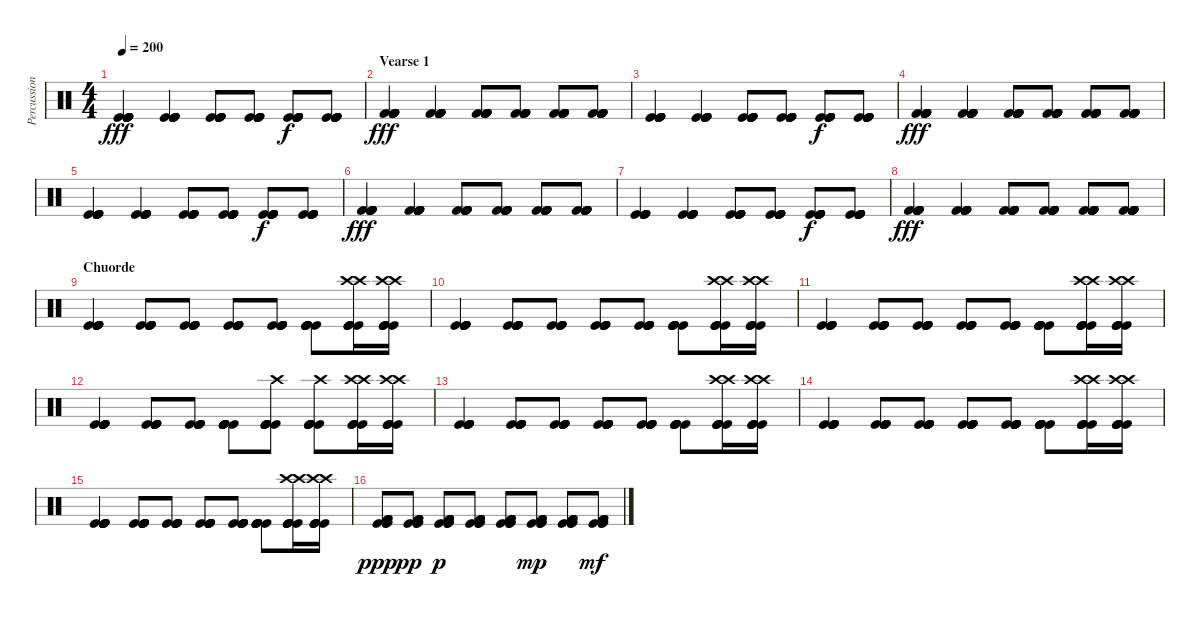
\track ("Percussion" "Percussion") {instrument percussion}
\staff {score}
\articulation defaults
\ts (4 4)
\tempo 200
\clef neutral
\ks c
("Kick (hit)" "Kick (hit)" "Kick (hit)" "Kick (hit)" "Kick (hit)" "Kick (hit)").4{dy fff} ("Kick (hit)" "Kick (hit)" "Kick (hit)" "Kick (hit)" "Kick (hit)" "Kick (hit)").4 ("Kick (hit)" "Kick (hit)" "Kick (hit)" "Kick (hit)" "Kick (hit)" "Kick (hit)").8 ("Kick (hit)" "Kick (hit)" "Kick (hit)" "Kick (hit)" "Kick (hit)" "Kick (hit)").8 ("Kick (hit)" "Kick (hit)" "Kick (hit)" "Kick (hit)" "Kick (hit)" "Kick (hit)").8{dy f} ("Kick (hit)" "Kick (hit)" "Kick (hit)" "Kick (hit)" "Kick (hit)" "Kick (hit)").8 |
\section ("" "Vearse 1")
("Kick (hit) 2" "Kick (hit) 2" "Kick (hit) 2" "Kick (hit) 2" "Kick (hit) 2" "Kick (hit) 2").4{dy fff} ("Kick (hit) 2" "Kick (hit) 2" "Kick (hit) 2" "Kick (hit) 2" "Kick (hit) 2" "Kick (hit) 2").4 ("Kick (hit) 2" "Kick (hit) 2" "Kick (hit) 2" "Kick (hit) 2" "Kick (hit) 2" "Kick (hit) 2").8 ("Kick (hit) 2" "Kick (hit) 2" "Kick (hit) 2" "Kick (hit) 2" "Kick (hit) 2" "Kick (hit) 2").8 ("Kick (hit) 2" "Kick (hit) 2" "Kick (hit) 2" "Kick (hit) 2" "Kick (hit) 2" "Kick (hit) 2").8 ("Kick (hit) 2" "Kick (hit) 2" "Kick (hit) 2" "Kick (hit) 2" "Kick (hit) 2" "Kick (hit) 2").8 |
("Kick (hit)" "Kick (hit)" "Kick (hit)" "Kick (hit)" "Kick (hit)" "Kick (hit)").4 ("Kick (hit)" "Kick (hit)" "Kick (hit)" "Kick (hit)" "Kick (hit)" "Kick (hit)").4 ("Kick (hit)" "Kick (hit)" "Kick (hit)" "Kick (hit)" "Kick (hit)" "Kick (hit)").8 ("Kick (hit)" "Kick (hit)" "Kick (hit)" "Kick (hit)" "Kick (hit)" "Kick (hit)").8 ("Kick (hit)" "Kick (hit)" "Kick (hit)" "Kick (hit)" "Kick (hit)" "Kick (hit)").8{dy f} ("Kick (hit)" "Kick (hit)" "Kick (hit)" "Kick (hit)" "Kick (hit)" "Kick (hit)").8 |
("Kick (hit) 2" "Kick (hit) 2" "Kick (hit) 2" "Kick (hit) 2" "Kick (hit) 2" "Kick (hit) 2").4{dy fff} ("Kick (hit) 2" "Kick (hit) 2" "Kick (hit) 2" "Kick (hit) 2" "Kick (hit) 2" "Kick (hit) 2").4 ("Kick (hit) 2" "Kick (hit) 2" "Kick (hit) 2" "Kick (hit) 2" "Kick (hit) 2" "Kick (hit) 2").8 ("Kick (hit) 2" "Kick (hit) 2" "Kick (hit) 2" "Kick (hit) 2" "Kick (hit) 2" "Kick (hit) 2").8 ("Kick (hit) 2" "Kick (hit) 2" "Kick (hit) 2" "Kick (hit) 2" "Kick (hit) 2" "Kick (hit) 2").8 ("Kick (hit) 2" "Kick (hit) 2" "Kick (hit) 2" "Kick (hit) 2" "Kick (hit) 2" "Kick (hit) 2").8 |
("Kick (hit)" "Kick (hit)" "Kick (hit)" "Kick (hit)" "Kick (hit)" "Kick (hit)").4 ("Kick (hit)" "Kick (hit)" "Kick (hit)" "Kick (hit)" "Kick (hit)" "Kick (hit)").4 ("Kick (hit)" "Kick (hit)" "Kick (hit)" "Kick (hit)" "Kick (hit)" "Kick (hit)").8 ("Kick (hit)" "Kick (hit)" "Kick (hit)" "Kick (hit)" "Kick (hit)" "Kick (hit)").8 ("Kick (hit)" "Kick (hit)" "Kick (hit)" "Kick (hit)" "Kick (hit)" "Kick (hit)").8{dy f} ("Kick (hit)" "Kick (hit)" "Kick (hit)" "Kick (hit)" "Kick (hit)" "Kick (hit)").8 |
("Kick (hit) 2" "Kick (hit) 2" "Kick (hit) 2" "Kick (hit) 2" "Kick (hit) 2" "Kick (hit) 2").4{dy fff} ("Kick (hit) 2" "Kick (hit) 2" "Kick (hit) 2" "Kick (hit) 2" "Kick (hit) 2" "Kick (hit) 2").4 ("Kick (hit) 2" "Kick (hit) 2" "Kick (hit) 2" "Kick (hit) 2" "Kick (hit) 2" "Kick (hit) 2").8 ("Kick (hit) 2" "Kick (hit) 2" "Kick (hit) 2" "Kick (hit) 2" "Kick (hit) 2" "Kick (hit) 2").8 ("Kick (hit) 2" "Kick (hit) 2" "Kick (hit) 2" "Kick (hit) 2" "Kick (hit) 2" "Kick (hit) 2").8 ("Kick (hit) 2" "Kick (hit) 2" "Kick (hit) 2" "Kick (hit) 2" "Kick (hit) 2" "Kick (hit) 2").8 |
("Kick (hit)" "Kick (hit)" "Kick (hit)" "Kick (hit)" "Kick (hit)" "Kick (hit)").4 ("Kick (hit)" "Kick (hit)" "Kick (hit)" "Kick (hit)" "Kick (hit)" "Kick (hit)").4 ("Kick (hit)" "Kick (hit)" "Kick (hit)" "Kick (hit)" "Kick (hit)" "Kick (hit)").8 ("Kick (hit)" "Kick (hit)" "Kick (hit)" "Kick (hit)" "Kick (hit)" "Kick (hit)").8 ("Kick (hit)" "Kick (hit)" "Kick (hit)" "Kick (hit)" "Kick (hit)" "Kick (hit)").8{dy f} ("Kick (hit)" "Kick (hit)" "Kick (hit)" "Kick (hit)" "Kick (hit)" "Kick (hit)").8 |
("Kick (hit) 2" "Kick (hit) 2" "Kick (hit) 2" "Kick (hit) 2" "Kick (hit) 2" "Kick (hit) 2").4{dy fff} ("Kick (hit) 2" "Kick (hit) 2" "Kick (hit) 2" "Kick (hit) 2" "Kick (hit) 2" "Kick (hit) 2").4 ("Kick (hit) 2" "Kick (hit) 2" "Kick (hit) 2" "Kick (hit) 2" "Kick (hit) 2" "Kick (hit) 2").8 ("Kick (hit) 2" "Kick (hit) 2" "Kick (hit) 2" "Kick (hit) 2" "Kick (hit) 2" "Kick (hit) 2").8 ("Kick (hit) 2" "Kick (hit) 2" "Kick (hit) 2" "Kick (hit) 2" "Kick (hit) 2" "Kick (hit) 2").8 ("Kick (hit) 2" "Kick (hit) 2" "Kick (hit) 2" "Kick (hit) 2" "Kick (hit) 2" "Kick (hit) 2").8 |
\section ("" "Chuorde ")
("Kick (hit)" "Kick (hit)" "Kick (hit)" "Kick (hit)" "Kick (hit)" "Kick (hit)").4 ("Kick (hit)" "Kick (hit)" "Kick (hit)" "Kick (hit)" "Kick (hit)" "Kick (hit)").8 ("Kick (hit)" "Kick (hit)" "Kick (hit)" "Kick (hit)" "Kick (hit)" "Kick (hit)").8 ("Kick (hit)" "Kick (hit)" "Kick (hit)" "Kick (hit)" "Kick (hit)" "Kick (hit)").8 ("Kick (hit)" "Kick (hit)" "Kick (hit)" "Kick (hit)" "Kick (hit)" "Kick (hit)").8 ("Kick (hit)" "Kick (hit)" "Kick (hit)" "Kick (hit)" "Kick (hit)" "Kick (hit)").8 ("Crash high (hit)" "Kick (hit)" "Kick (hit)" "Kick (hit)" "Crash high (hit)" "Kick (hit)").16 ("Kick (hit)" "Kick (hit)" "Crash high (hit)" "Kick (hit)" "Kick (hit)" "Crash high (hit)").16 |
("Kick (hit)" "Kick (hit)" "Kick (hit)" "Kick (hit)" "Kick (hit)" "Kick (hit)").4 ("Kick (hit)" "Kick (hit)" "Kick (hit)" "Kick (hit)" "Kick (hit)" "Kick (hit)").8 ("Kick (hit)" "Kick (hit)" "Kick (hit)" "Kick (hit)" "Kick (hit)" "Kick (hit)").8 ("Kick (hit)" "Kick (hit)" "Kick (hit)" "Kick (hit)" "Kick (hit)" "Kick (hit)").8 ("Kick (hit)" "Kick (hit)" "Kick (hit)" "Kick (hit)" "Kick (hit)" "Kick (hit)").8 ("Kick (hit)" "Kick (hit)" "Kick (hit)" "Kick (hit)" "Kick (hit)" "Kick (hit)").8 ("Crash high (hit)" "Kick (hit)" "Kick (hit)" "Kick (hit)" "Crash high (hit)" "Kick (hit)").16 ("Kick (hit)" "Kick (hit)" "Crash high (hit)" "Kick (hit)" "Kick (hit)" "Crash high (hit)").16 |
("Kick (hit)" "Kick (hit)" "Kick (hit)" "Kick (hit)" "Kick (hit)" "Kick (hit)").4 ("Kick (hit)" "Kick (hit)" "Kick (hit)" "Kick (hit)" "Kick (hit)" "Kick (hit)").8 ("Kick (hit)" "Kick (hit)" "Kick (hit)" "Kick (hit)" "Kick (hit)" "Kick (hit)").8 ("Kick (hit)" "Kick (hit)" "Kick (hit)" "Kick (hit)" "Kick (hit)" "Kick (hit)").8 ("Kick (hit)" "Kick (hit)" "Kick (hit)" "Kick (hit)" "Kick (hit)" "Kick (hit)").8 ("Kick (hit)" "Kick (hit)" "Kick (hit)" "Kick (hit)" "Kick (hit)" "Kick (hit)").8 ("Crash high (hit)" "Kick (hit)" "Kick (hit)" "Kick (hit)" "Crash high (hit)" "Kick (hit)").16 ("Kick (hit)" "Kick (hit)" "Crash high (hit)" "Kick (hit)" "Kick (hit)" "Crash high (hit)").16 |
("Kick (hit)" "Kick (hit)" "Kick (hit)" "Kick (hit)" "Kick (hit)" "Kick (hit)").4 ("Kick (hit)" "Kick (hit)" "Kick (hit)" "Kick (hit)" "Kick (hit)" "Kick (hit)").8 ("Kick (hit)" "Kick (hit)" "Kick (hit)" "Kick (hit)" "Kick (hit)" "Kick (hit)").8 ("Kick (hit)" "Kick (hit)" "Kick (hit)" "Kick (hit)" "Kick (hit)" "Kick (hit)").8 ("Kick (hit)" "Kick (hit)" "Kick (hit)" "Kick (hit)" "Crash high (hit)" "Kick (hit)").8 ("Kick (hit)" "Kick (hit)" "Crash high (hit)" "Kick (hit)" "Kick (hit)" "Kick (hit)").8 ("Crash high (hit)" "Kick (hit)" "Kick (hit)" "Kick (hit)" "Crash high (hit)" "Kick (hit)").16 ("Kick (hit)" "Kick (hit)" "Crash high (hit)" "Kick (hit)" "Kick (hit)" "Crash high (hit)").16 |
("Kick (hit)" "Kick (hit)" "Kick (hit)" "Kick (hit)" "Kick (hit)" "Kick (hit)").4 ("Kick (hit)" "Kick (hit)" "Kick (hit)" "Kick (hit)" "Kick (hit)" "Kick (hit)").8 ("Kick (hit)" "Kick (hit)" "Kick (hit)" "Kick (hit)" "Kick (hit)" "Kick (hit)").8 ("Kick (hit)" "Kick (hit)" "Kick (hit)" "Kick (hit)" "Kick (hit)" "Kick (hit)").8 ("Kick (hit)" "Kick (hit)" "Kick (hit)" "Kick (hit)" "Kick (hit)" "Kick (hit)").8 ("Kick (hit)" "Kick (hit)" "Kick (hit)" "Kick (hit)" "Kick (hit)" "Kick (hit)").8 ("Crash high (hit)" "Kick (hit)" "Kick (hit)" "Kick (hit)" "Crash high (hit)" "Kick (hit)").16 ("Kick (hit)" "Kick (hit)" "Crash high (hit)" "Kick (hit)" "Kick (hit)" "Crash high (hit)").16 |
("Kick (hit)" "Kick (hit)" "Kick (hit)" "Kick (hit)" "Kick (hit)" "Kick (hit)").4 ("Kick (hit)" "Kick (hit)" "Kick (hit)" "Kick (hit)" "Kick (hit)" "Kick (hit)").8 ("Kick (hit)" "Kick (hit)" "Kick (hit)" "Kick (hit)" "Kick (hit)" "Kick (hit)").8 ("Kick (hit)" "Kick (hit)" "Kick (hit)" "Kick (hit)" "Kick (hit)" "Kick (hit)").8 ("Kick (hit)" "Kick (hit)" "Kick (hit)" "Kick (hit)" "Kick (hit)" "Kick (hit)").8 ("Kick (hit)" "Kick (hit)" "Kick (hit)" "Kick (hit)" "Kick (hit)" "Kick (hit)").8 ("Crash high (hit)" "Kick (hit)" "Kick (hit)" "Kick (hit)" "Crash high (hit)" "Kick (hit)").16 ("Kick (hit)" "Kick (hit)" "Crash high (hit)" "Kick (hit)" "Kick (hit)" "Crash high (hit)").16 |
("Kick (hit)" "Kick (hit)" "Kick (hit)" "Kick (hit)" "Kick (hit)" "Kick (hit)").4 ("Kick (hit)" "Kick (hit)" "Kick (hit)" "Kick (hit)" "Kick (hit)" "Kick (hit)").8 ("Kick (hit)" "Kick (hit)" "Kick (hit)" "Kick (hit)" "Kick (hit)" "Kick (hit)").8 ("Kick (hit)" "Kick (hit)" "Kick (hit)" "Kick (hit)" "Kick (hit)" "Kick (hit)").8 ("Kick (hit)" "Kick (hit)" "Kick (hit)" "Kick (hit)" "Kick (hit)" "Kick (hit)").8 ("Kick (hit)" "Kick (hit)" "Kick (hit)" "Kick (hit)" "Kick (hit)" "Kick (hit)").8 ("Crash high (hit)" "Kick (hit)" "Kick (hit)" "Kick (hit)" "Crash high (hit)" "Kick (hit)").16 ("Kick (hit)" "Kick (hit)" "Crash high (hit)" "Kick (hit)" "Kick (hit)" "Crash high (hit)").16 |
("Kick (hit)" "Kick (hit) 2" "Kick (hit)" "Kick (hit) 2" "Kick (hit)" "Kick (hit) 2").8{dy ppp} ("Kick (hit)" "Kick (hit) 2" "Kick (hit)" "Kick (hit) 2" "Kick (hit)" "Kick (hit) 2").8{dy pp} ("Kick (hit)" "Kick (hit) 2" "Kick (hit)" "Kick (hit) 2" "Kick (hit)" "Kick (hit) 2").8{dy p} ("Kick (hit)" "Kick (hit) 2" "Kick (hit)" "Kick (hit) 2" "Kick (hit)" "Kick (hit) 2").8 ("Kick (hit)" "Kick (hit) 2" "Kick (hit)" "Kick (hit) 2" "Kick (hit)" "Kick (hit) 2").8 ("Kick (hit)" "Kick (hit) 2" "Kick (hit)" "Kick (hit) 2" "Kick (hit)" "Kick (hit) 2").8{dy mp} ("Kick (hit)" "Kick (hit) 2" "Kick (hit)" "Kick (hit) 2" "Kick (hit)" "Kick (hit) 2").8 ("Kick (hit)" "Kick (hit) 2" "Kick (hit)" "Kick (hit) 2" "Kick (hit)" "Kick (hit) 2").8{dy mf}
